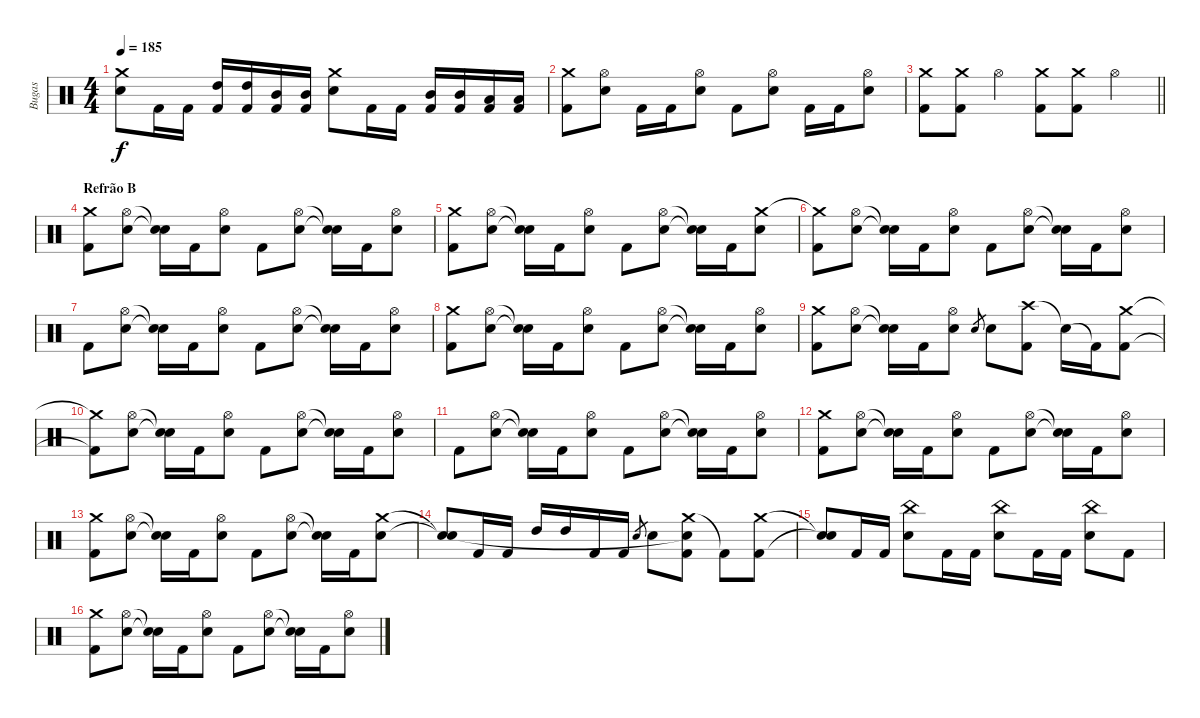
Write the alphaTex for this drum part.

\track ("Bugas" "Bugas") {instrument percussion}
\staff {score}
\articulation defaults
\ts (4 4)
\tempo 185
\clef neutral
\ks c
("Crash medium (hit)" "Electric Snare (hit)").8{dy f} "Kick (hit) 2".16 "Kick (hit) 2".16 ("High Tom (hit)" "Kick (hit) 2").16 ("High Tom (hit)" "Kick (hit) 2").16 ("Mid Tom (hit)" "Kick (hit) 2").16 ("Mid Tom (hit)" "Kick (hit) 2").16 ("Crash medium (hit)" "Electric Snare (hit)").8 "Kick (hit) 2".16 "Kick (hit) 2".16 ("Mid Tom (hit)" "Kick (hit) 2").16 ("Mid Tom (hit)" "Kick (hit) 2").16 ("Low Tom (hit)" "Kick (hit) 2").16 ("Low Tom (hit)" "Kick (hit) 2").16 |
("Crash medium (hit)" "Kick (hit) 2").8 ("Hi-Hat (open)" "Electric Snare (hit)").8 "Kick (hit) 2".16 "Kick (hit) 2".16 ("Hi-Hat (open)" "Electric Snare (hit)").8 "Kick (hit) 2".8 ("Hi-Hat (open)" "Electric Snare (hit)").8 "Kick (hit) 2".16 "Kick (hit) 2".16 ("Hi-Hat (open)" "Electric Snare (hit)").8 |
\barLineRight lightlight
("Crash medium (hit)" "Kick (hit) 2").8 ("Crash medium (hit)" "Kick (hit) 2").8 "Hi-Hat (open)".4 ("Crash medium (hit)" "Kick (hit) 2").8 ("Crash medium (hit)" "Kick (hit) 2").8 "Hi-Hat (open)".4 |
\section ("" "Refrão B")
("Crash medium (hit)" "Kick (hit) 2").8 ("Hi-Hat (open)" "Electric Snare (hit)").8 ("Snare (hit)"{t} "Snare (hit)"{t}).16 "Kick (hit) 2".16 ("Hi-Hat (open)" "Electric Snare (hit)").8 "Kick (hit) 2".8 ("Hi-Hat (open)" "Electric Snare (hit)").8 ("Snare (hit)"{t} "Snare (hit)"{t}).16 "Kick (hit) 2".16 ("Hi-Hat (open)" "Electric Snare (hit)").8 |
("Crash medium (hit)" "Kick (hit) 2").8 ("Hi-Hat (open)" "Electric Snare (hit)").8 ("Snare (hit)"{t} "Snare (hit)"{t}).16 "Kick (hit) 2".16 ("Hi-Hat (open)" "Electric Snare (hit)").8 "Kick (hit) 2".8 ("Hi-Hat (open)" "Electric Snare (hit)").8 ("Snare (hit)"{t} "Snare (hit)"{t}).16 "Kick (hit) 2".16 ("Crash medium (hit)" "Electric Snare (hit)").8 |
("Crash medium (hit)"{t} "Kick (hit) 2").8 ("Hi-Hat (open)" "Electric Snare (hit)").8 ("Snare (hit)"{t} "Snare (hit)"{t}).16 "Kick (hit) 2".16 ("Hi-Hat (open)" "Electric Snare (hit)").8 "Kick (hit) 2".8 ("Hi-Hat (open)" "Electric Snare (hit)").8 ("Snare (hit)"{t} "Snare (hit)"{t}).16 "Kick (hit) 2".16 ("Hi-Hat (open)" "Electric Snare (hit)").8 |
"Kick (hit) 2".8 ("Hi-Hat (open)" "Electric Snare (hit)").8 ("Snare (hit)"{t} "Snare (hit)"{t}).16 "Kick (hit) 2".16 ("Hi-Hat (open)" "Electric Snare (hit)").8 "Kick (hit) 2".8 ("Hi-Hat (open)" "Electric Snare (hit)").8 ("Snare (hit)"{t} "Snare (hit)"{t}).16 "Kick (hit) 2".16 ("Hi-Hat (open)" "Electric Snare (hit)").8 |
("Crash medium (hit)" "Kick (hit) 2").8 ("Hi-Hat (open)" "Electric Snare (hit)").8 ("Snare (hit)"{t} "Snare (hit)"{t}).16 "Kick (hit) 2".16 ("Hi-Hat (open)" "Electric Snare (hit)").8 "Kick (hit) 2".8 ("Hi-Hat (open)" "Electric Snare (hit)").8 ("Snare (hit)"{t} "Snare (hit)"{t}).16 "Kick (hit) 2".16 ("Hi-Hat (open)" "Electric Snare (hit)").8 |
("Crash medium (hit)" "Kick (hit) 2").8 ("Hi-Hat (open)" "Electric Snare (hit)").8 ("Snare (hit)"{t} "Snare (hit)"{t}).16 "Kick (hit) 2".16 ("Hi-Hat (open)" "Electric Snare (hit)").8 "Electric Snare (hit)".8{gr} "Electric Snare (hit)".8 ("Crash high (hit)" "Kick (hit) 2").8 "Snare (hit)"{t}.16 "Kick (hit) 2"{t}.16 ("Crash medium (hit)" "Kick (hit) 2").8 |
("Crash medium (hit)"{t} "Kick (hit) 2"{t}).8 ("Hi-Hat (open)" "Electric Snare (hit)").8 ("Snare (hit)"{t} "Snare (hit)"{t}).16 "Kick (hit) 2".16 ("Hi-Hat (open)" "Electric Snare (hit)").8 "Kick (hit) 2".8 ("Hi-Hat (open)" "Electric Snare (hit)").8 ("Snare (hit)"{t} "Snare (hit)"{t}).16 "Kick (hit) 2".16 ("Hi-Hat (open)" "Electric Snare (hit)").8 |
"Kick (hit) 2".8 ("Hi-Hat (open)" "Electric Snare (hit)").8 ("Snare (hit)"{t} "Snare (hit)"{t}).16 "Kick (hit) 2".16 ("Hi-Hat (open)" "Electric Snare (hit)").8 "Kick (hit) 2".8 ("Hi-Hat (open)" "Electric Snare (hit)").8 ("Snare (hit)"{t} "Snare (hit)"{t}).16 "Kick (hit) 2".16 ("Hi-Hat (open)" "Electric Snare (hit)").8 |
("Crash medium (hit)" "Kick (hit) 2").8 ("Hi-Hat (open)" "Electric Snare (hit)").8 ("Snare (hit)"{t} "Snare (hit)"{t}).16 "Kick (hit) 2".16 ("Hi-Hat (open)" "Electric Snare (hit)").8 "Kick (hit) 2".8 ("Hi-Hat (open)" "Electric Snare (hit)").8 ("Snare (hit)"{t} "Snare (hit)"{t}).16 "Kick (hit) 2".16 ("Hi-Hat (open)" "Electric Snare (hit)").8 |
("Crash medium (hit)" "Kick (hit) 2").8 ("Hi-Hat (open)" "Electric Snare (hit)").8 ("Snare (hit)"{t} "Snare (hit)"{t}).16 "Kick (hit) 2".16 ("Hi-Hat (open)" "Electric Snare (hit)").8 "Kick (hit) 2".8 ("Hi-Hat (open)" "Electric Snare (hit)").8 ("Snare (hit)"{t} "Snare (hit)"{t}).16 "Kick (hit) 2".16 ("Crash medium (hit)" "Electric Snare (hit)").8 |
("Snare (hit)"{t} "Snare (hit)"{t}).8 "Kick (hit) 2".16 "Kick (hit) 2".16 "High Tom (hit)".16 "High Tom (hit)".16 "Kick (hit) 2".16 "Kick (hit) 2".16 "Electric Snare (hit)".8{gr} "Electric Snare (hit)".8 ("Crash medium (hit)" "Snare (hit)"{t} "Kick (hit) 2").8 "Kick (hit) 2"{t}.8 ("Crash medium (hit)" "Kick (hit) 2").8 |
("Snare (hit)"{t} "Snare (hit)"{t}).8 "Kick (hit) 2".16 "Kick (hit) 2".16 ("China (hit)" "Electric Snare (hit)").8 "Kick (hit) 2".16 "Kick (hit) 2".16 ("China (hit)" "Electric Snare (hit)").8 "Kick (hit) 2".16 "Kick (hit) 2".16 ("China (hit)" "Electric Snare (hit)").8 "Kick (hit) 2".8 |
("Crash medium (hit)" "Kick (hit) 2").8 ("Hi-Hat (open)" "Electric Snare (hit)").8 ("Snare (hit)"{t} "Snare (hit)"{t}).16 "Kick (hit) 2".16 ("Hi-Hat (open)" "Electric Snare (hit)").8 "Kick (hit) 2".8 ("Hi-Hat (open)" "Electric Snare (hit)").8 ("Snare (hit)"{t} "Snare (hit)"{t}).16 "Kick (hit) 2".16 ("Hi-Hat (open)" "Electric Snare (hit)").8
